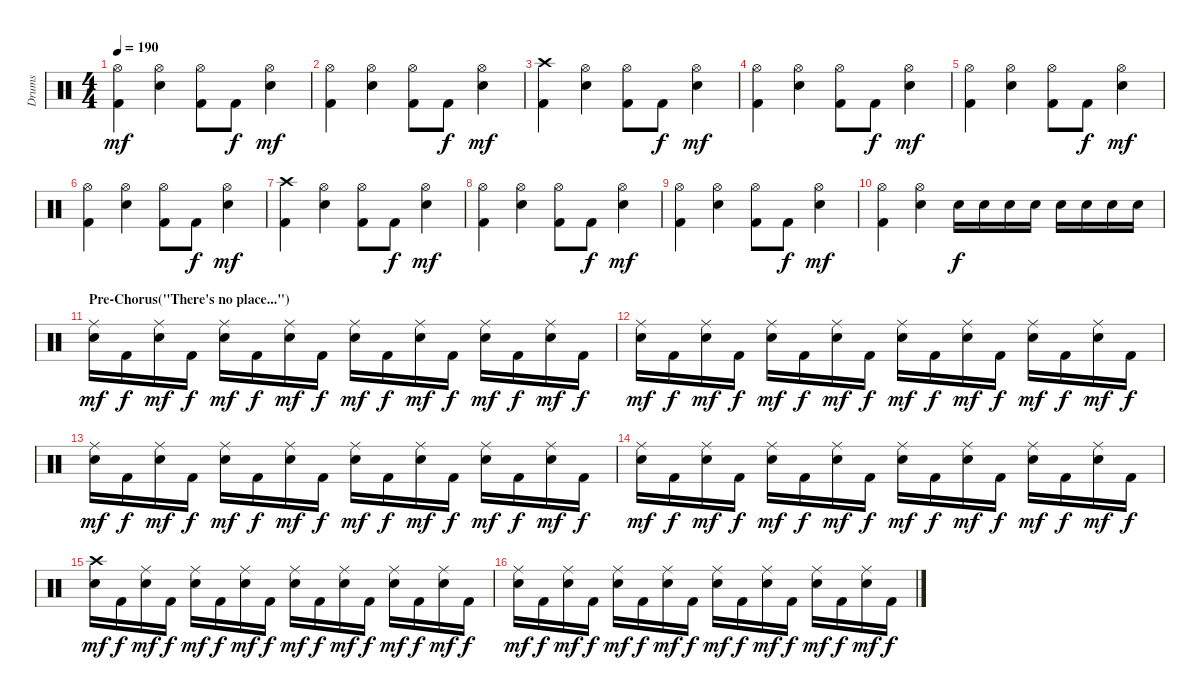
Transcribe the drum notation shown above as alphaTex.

\track ("Drums" "Drums") {instrument percussion}
\staff {score}
\articulation defaults
\ts (4 4)
\tempo 190
\clef neutral
\ks c
("Hi-Hat (open)" "Kick (hit) 2").4{dy mf} ("Hi-Hat (open)" "Snare (hit) 2").4 ("Hi-Hat (open)" "Kick (hit) 2").8 "Kick (hit) 2".8{dy f} ("Hi-Hat (open)" "Snare (hit) 2").4{dy mf} |
("Hi-Hat (open)" "Kick (hit) 2").4 ("Hi-Hat (open)" "Snare (hit) 2").4 ("Hi-Hat (open)" "Kick (hit) 2").8 "Kick (hit) 2".8{dy f} ("Hi-Hat (open)" "Snare (hit) 2").4{dy mf} |
("Crash high (hit)" "Kick (hit) 2").4 ("Hi-Hat (open)" "Snare (hit) 2").4 ("Hi-Hat (open)" "Kick (hit) 2").8 "Kick (hit) 2".8{dy f} ("Hi-Hat (open)" "Snare (hit) 2").4{dy mf} |
("Hi-Hat (open)" "Kick (hit) 2").4 ("Hi-Hat (open)" "Snare (hit) 2").4 ("Hi-Hat (open)" "Kick (hit) 2").8 "Kick (hit) 2".8{dy f} ("Hi-Hat (open)" "Snare (hit) 2").4{dy mf} |
("Hi-Hat (open)" "Kick (hit) 2").4 ("Hi-Hat (open)" "Snare (hit) 2").4 ("Hi-Hat (open)" "Kick (hit) 2").8 "Kick (hit) 2".8{dy f} ("Hi-Hat (open)" "Snare (hit) 2").4{dy mf} |
("Hi-Hat (open)" "Kick (hit) 2").4 ("Hi-Hat (open)" "Snare (hit) 2").4 ("Hi-Hat (open)" "Kick (hit) 2").8 "Kick (hit) 2".8{dy f} ("Hi-Hat (open)" "Snare (hit) 2").4{dy mf} |
("Crash high (hit)" "Kick (hit) 2").4 ("Hi-Hat (open)" "Snare (hit) 2").4 ("Hi-Hat (open)" "Kick (hit) 2").8 "Kick (hit) 2".8{dy f} ("Hi-Hat (open)" "Snare (hit) 2").4{dy mf} |
("Hi-Hat (open)" "Kick (hit) 2").4 ("Hi-Hat (open)" "Snare (hit) 2").4 ("Hi-Hat (open)" "Kick (hit) 2").8 "Kick (hit) 2".8{dy f} ("Hi-Hat (open)" "Snare (hit) 2").4{dy mf} |
("Hi-Hat (open)" "Kick (hit) 2").4 ("Hi-Hat (open)" "Snare (hit) 2").4 ("Hi-Hat (open)" "Kick (hit) 2").8 "Kick (hit) 2".8{dy f} ("Hi-Hat (open)" "Snare (hit) 2").4{dy mf} |
("Hi-Hat (open)" "Kick (hit) 2").4 ("Hi-Hat (open)" "Snare (hit) 2").4 "Snare (hit) 2".16{dy f} "Snare (hit) 2".16 "Snare (hit) 2".16 "Snare (hit) 2".16 "Snare (hit) 2".16 "Snare (hit) 2".16 "Snare (hit) 2".16 "Snare (hit) 2".16 |
\section ("" "Pre-Chorus(\"There's no place...\")")
("Ride (middle)" "Snare (hit) 2").16{dy mf} "Kick (hit) 2".16{dy f} ("Ride (middle)" "Snare (hit) 2").16{dy mf} "Kick (hit) 2".16{dy f} ("Ride (middle)" "Snare (hit) 2").16{dy mf} "Kick (hit) 2".16{dy f} ("Ride (middle)" "Snare (hit) 2").16{dy mf} "Kick (hit) 2".16{dy f} ("Ride (middle)" "Snare (hit) 2").16{dy mf} "Kick (hit) 2".16{dy f} ("Ride (middle)" "Snare (hit) 2").16{dy mf} "Kick (hit) 2".16{dy f} ("Ride (middle)" "Snare (hit) 2").16{dy mf} "Kick (hit) 2".16{dy f} ("Ride (middle)" "Snare (hit) 2").16{dy mf} "Kick (hit) 2".16{dy f} |
("Ride (middle)" "Snare (hit) 2").16{dy mf} "Kick (hit) 2".16{dy f} ("Ride (middle)" "Snare (hit) 2").16{dy mf} "Kick (hit) 2".16{dy f} ("Ride (middle)" "Snare (hit) 2").16{dy mf} "Kick (hit) 2".16{dy f} ("Ride (middle)" "Snare (hit) 2").16{dy mf} "Kick (hit) 2".16{dy f} ("Ride (middle)" "Snare (hit) 2").16{dy mf} "Kick (hit) 2".16{dy f} ("Ride (middle)" "Snare (hit) 2").16{dy mf} "Kick (hit) 2".16{dy f} ("Ride (middle)" "Snare (hit) 2").16{dy mf} "Kick (hit) 2".16{dy f} ("Ride (middle)" "Snare (hit) 2").16{dy mf} "Kick (hit) 2".16{dy f} |
("Ride (middle)" "Snare (hit) 2").16{dy mf} "Kick (hit) 2".16{dy f} ("Ride (middle)" "Snare (hit) 2").16{dy mf} "Kick (hit) 2".16{dy f} ("Ride (middle)" "Snare (hit) 2").16{dy mf} "Kick (hit) 2".16{dy f} ("Ride (middle)" "Snare (hit) 2").16{dy mf} "Kick (hit) 2".16{dy f} ("Ride (middle)" "Snare (hit) 2").16{dy mf} "Kick (hit) 2".16{dy f} ("Ride (middle)" "Snare (hit) 2").16{dy mf} "Kick (hit) 2".16{dy f} ("Ride (middle)" "Snare (hit) 2").16{dy mf} "Kick (hit) 2".16{dy f} ("Ride (middle)" "Snare (hit) 2").16{dy mf} "Kick (hit) 2".16{dy f} |
("Ride (middle)" "Snare (hit) 2").16{dy mf} "Kick (hit) 2".16{dy f} ("Ride (middle)" "Snare (hit) 2").16{dy mf} "Kick (hit) 2".16{dy f} ("Ride (middle)" "Snare (hit) 2").16{dy mf} "Kick (hit) 2".16{dy f} ("Ride (middle)" "Snare (hit) 2").16{dy mf} "Kick (hit) 2".16{dy f} ("Ride (middle)" "Snare (hit) 2").16{dy mf} "Kick (hit) 2".16{dy f} ("Ride (middle)" "Snare (hit) 2").16{dy mf} "Kick (hit) 2".16{dy f} ("Ride (middle)" "Snare (hit) 2").16{dy mf} "Kick (hit) 2".16{dy f} ("Ride (middle)" "Snare (hit) 2").16{dy mf} "Kick (hit) 2".16{dy f} |
("Crash high (hit)" "Snare (hit) 2").16{dy mf} "Kick (hit) 2".16{dy f} ("Ride (middle)" "Snare (hit) 2").16{dy mf} "Kick (hit) 2".16{dy f} ("Ride (middle)" "Snare (hit) 2").16{dy mf} "Kick (hit) 2".16{dy f} ("Ride (middle)" "Snare (hit) 2").16{dy mf} "Kick (hit) 2".16{dy f} ("Ride (middle)" "Snare (hit) 2").16{dy mf} "Kick (hit) 2".16{dy f} ("Ride (middle)" "Snare (hit) 2").16{dy mf} "Kick (hit) 2".16{dy f} ("Ride (middle)" "Snare (hit) 2").16{dy mf} "Kick (hit) 2".16{dy f} ("Ride (middle)" "Snare (hit) 2").16{dy mf} "Kick (hit) 2".16{dy f} |
("Ride (middle)" "Snare (hit) 2").16{dy mf} "Kick (hit) 2".16{dy f} ("Ride (middle)" "Snare (hit) 2").16{dy mf} "Kick (hit) 2".16{dy f} ("Ride (middle)" "Snare (hit) 2").16{dy mf} "Kick (hit) 2".16{dy f} ("Ride (middle)" "Snare (hit) 2").16{dy mf} "Kick (hit) 2".16{dy f} ("Ride (middle)" "Snare (hit) 2").16{dy mf} "Kick (hit) 2".16{dy f} ("Ride (middle)" "Snare (hit) 2").16{dy mf} "Kick (hit) 2".16{dy f} ("Ride (middle)" "Snare (hit) 2").16{dy mf} "Kick (hit) 2".16{dy f} ("Ride (middle)" "Snare (hit) 2").16{dy mf} "Kick (hit) 2".16{dy f}
